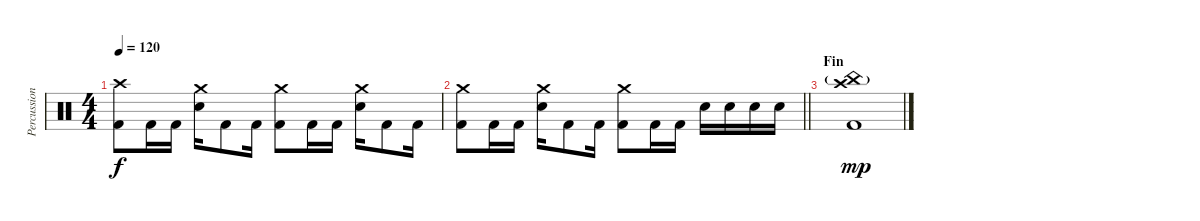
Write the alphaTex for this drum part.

\track ("Percussion" "Percussion") {instrument percussion}
\staff {score}
\articulation defaults
\ts (4 4)
\tempo 120
\clef neutral
\ks c
("Crash high (hit)" "Kick (hit) 2").8{dy f} "Kick (hit) 2".16 "Kick (hit) 2".16 ("Crash medium (hit)" "Electric Snare (hit)").16 "Kick (hit) 2".8 "Kick (hit) 2".16 ("Crash medium (hit)" "Kick (hit) 2").8 "Kick (hit) 2".16 "Kick (hit) 2".16 ("Crash medium (hit)" "Electric Snare (hit)").16 "Kick (hit) 2".8 "Kick (hit) 2".16 |
\barLineRight lightlight
("Crash medium (hit)" "Kick (hit) 2").8 "Kick (hit) 2".16 "Kick (hit) 2".16 ("Crash medium (hit)" "Electric Snare (hit)").16 "Kick (hit) 2".8 "Kick (hit) 2".16 ("Crash medium (hit)" "Kick (hit) 2").8 "Kick (hit) 2".16 "Kick (hit) 2".16 "Electric Snare (hit)".16 "Electric Snare (hit)".16 "Electric Snare (hit)".16 "Electric Snare (hit)".16 |
\section ("" "Fin")
("Crash high (hit)" "China (hit)"{g} "Kick (hit) 2").1{dy mp}
